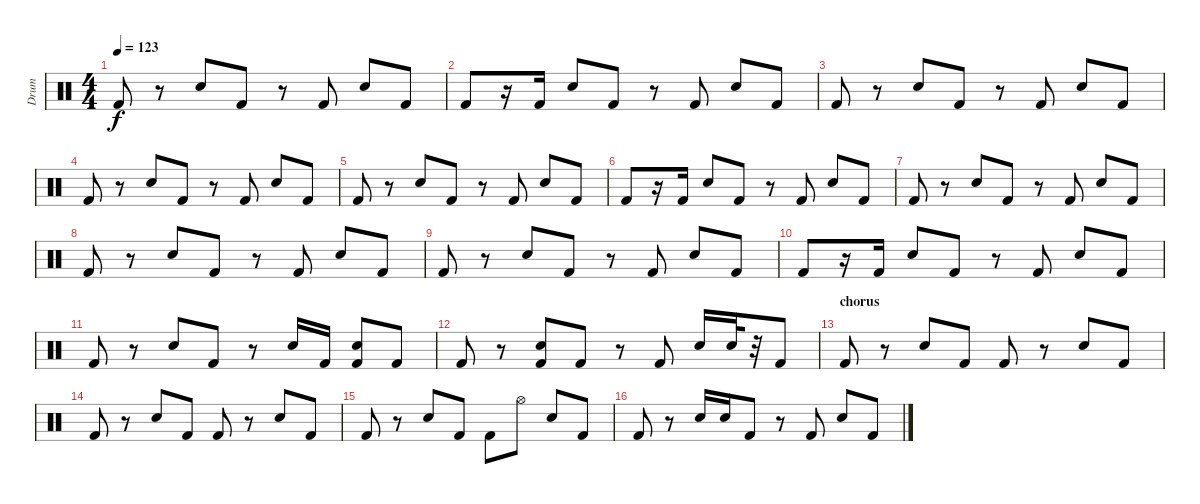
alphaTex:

\track ("Drum" "Drum") {instrument percussion}
\staff {score}
\articulation defaults
\ts (4 4)
\tempo 123
\clef neutral
\ks c "Kick (hit) 2".8{dy f}
r.8 "Electric Snare (hit)".8 "Kick (hit) 2".8 r.8 "Kick (hit) 2".8 "Electric Snare (hit)".8 "Kick (hit) 2".8 |
"Kick (hit) 2".8 r.16 "Kick (hit) 2".16 "Electric Snare (hit)".8 "Kick (hit) 2".8 r.8 "Kick (hit) 2".8 "Electric Snare (hit)".8 "Kick (hit) 2".8 |
"Kick (hit) 2".8 r.8 "Electric Snare (hit)".8 "Kick (hit) 2".8 r.8 "Kick (hit) 2".8 "Electric Snare (hit)".8 "Kick (hit) 2".8 |
"Kick (hit) 2".8 r.8 "Electric Snare (hit)".8 "Kick (hit) 2".8 r.8 "Kick (hit) 2".8 "Electric Snare (hit)".8 "Kick (hit) 2".8 |
"Kick (hit) 2".8 r.8 "Electric Snare (hit)".8 "Kick (hit) 2".8 r.8 "Kick (hit) 2".8 "Electric Snare (hit)".8 "Kick (hit) 2".8 |
"Kick (hit) 2".8 r.16 "Kick (hit) 2".16 "Electric Snare (hit)".8 "Kick (hit) 2".8 r.8 "Kick (hit) 2".8 "Electric Snare (hit)".8 "Kick (hit) 2".8 |
"Kick (hit) 2".8 r.8 "Electric Snare (hit)".8 "Kick (hit) 2".8 r.8 "Kick (hit) 2".8 "Electric Snare (hit)".8 "Kick (hit) 2".8 |
"Kick (hit) 2".8 r.8 "Electric Snare (hit)".8 "Kick (hit) 2".8 r.8 "Kick (hit) 2".8 "Electric Snare (hit)".8 "Kick (hit) 2".8 |
"Kick (hit) 2".8 r.8 "Electric Snare (hit)".8 "Kick (hit) 2".8 r.8 "Kick (hit) 2".8 "Electric Snare (hit)".8 "Kick (hit) 2".8 |
"Kick (hit) 2".8 r.16 "Kick (hit) 2".16 "Electric Snare (hit)".8 "Kick (hit) 2".8 r.8 "Kick (hit) 2".8 "Electric Snare (hit)".8 "Kick (hit) 2".8 |
"Kick (hit) 2".8 r.8 "Electric Snare (hit)".8 "Kick (hit) 2".8 r.8 "Electric Snare (hit)".16 "Kick (hit) 2".16 ("Electric Snare (hit)" "Kick (hit) 2").8 "Kick (hit) 2".8 |
"Kick (hit) 2".8 r.8 ("Electric Snare (hit)" "Kick (hit) 2").8 "Kick (hit) 2".8 r.8 "Kick (hit) 2".8 "Electric Snare (hit)".16 "Electric Snare (hit)".32 r.32 "Kick (hit) 2".8 |
\section ("" "chorus")
"Kick (hit) 2".8 r.8 "Electric Snare (hit)".8 "Kick (hit) 2".8 "Kick (hit) 2".8 r.8 "Electric Snare (hit)".8 "Kick (hit) 2".8 |
"Kick (hit) 2".8 r.8 "Electric Snare (hit)".8 "Kick (hit) 2".8 "Kick (hit) 2".8 r.8 "Electric Snare (hit)".8 "Kick (hit) 2".8 |
"Kick (hit) 2".8 r.8 "Electric Snare (hit)".8 "Kick (hit) 2".8 "Kick (hit) 2".8 "Hi-Hat (open)".8 "Electric Snare (hit)".8 "Kick (hit) 2".8 |
"Kick (hit) 2".8 r.8 "Electric Snare (hit)".16 "Electric Snare (hit)".16 "Kick (hit) 2".8 r.8 "Kick (hit) 2".8 "Electric Snare (hit)".8 "Kick (hit) 2".8
